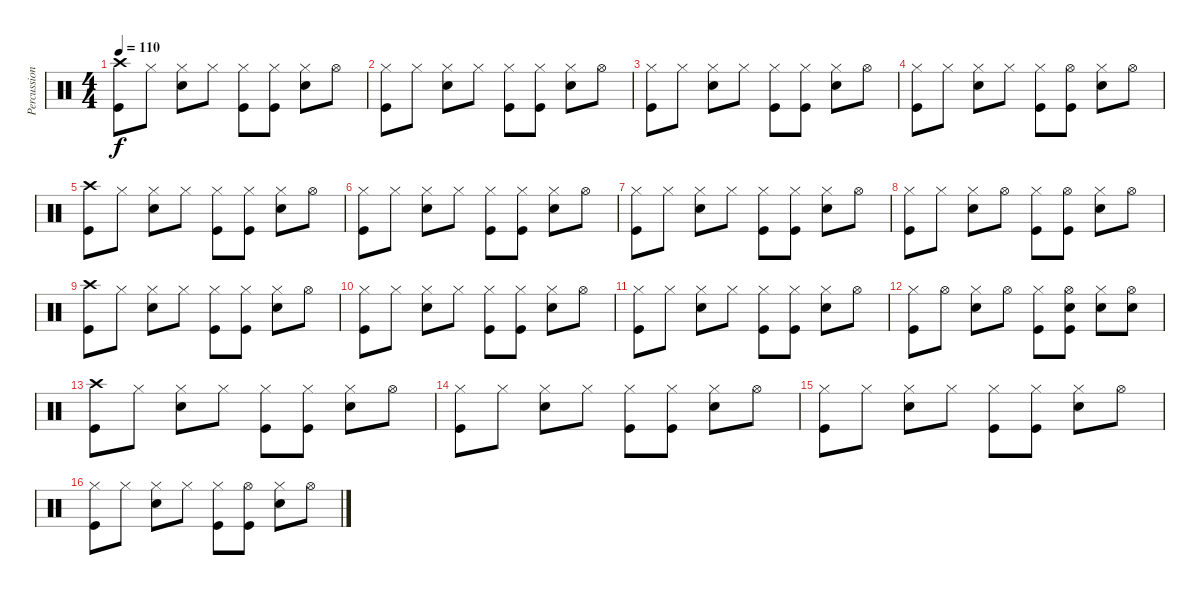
\track ("Percussion" "Percussion") {instrument percussion}
\staff {score}
\articulation defaults
\ts (4 4)
\tempo 110
\clef neutral
\ks c
("Kick (hit)" "Crash high (hit)").8{dy f} "Hi-Hat (closed)".8 ("Snare (hit) 2" "Hi-Hat (closed)").8 "Hi-Hat (closed)".8 ("Kick (hit)" "Hi-Hat (closed)").8 ("Kick (hit)" "Hi-Hat (closed)").8 ("Snare (hit) 2" "Hi-Hat (closed)").8 "Hi-Hat (open)".8 |
("Kick (hit)" "Hi-Hat (closed)").8 "Hi-Hat (closed)".8 ("Snare (hit) 2" "Hi-Hat (closed)").8 "Hi-Hat (closed)".8 ("Kick (hit)" "Hi-Hat (closed)").8 ("Kick (hit)" "Hi-Hat (closed)").8 ("Snare (hit) 2" "Hi-Hat (closed)").8 "Hi-Hat (open)".8 |
("Kick (hit)" "Hi-Hat (closed)").8 "Hi-Hat (closed)".8 ("Snare (hit) 2" "Hi-Hat (closed)").8 "Hi-Hat (closed)".8 ("Kick (hit)" "Hi-Hat (closed)").8 ("Kick (hit)" "Hi-Hat (closed)").8 ("Snare (hit) 2" "Hi-Hat (closed)").8 "Hi-Hat (open)".8 |
("Kick (hit)" "Hi-Hat (closed)").8 "Hi-Hat (closed)".8 ("Snare (hit) 2" "Hi-Hat (closed)").8 "Hi-Hat (closed)".8 ("Kick (hit)" "Hi-Hat (closed)").8 ("Kick (hit)" "Hi-Hat (open)").8 ("Snare (hit) 2" "Hi-Hat (closed)").8 "Hi-Hat (open)".8 |
("Kick (hit)" "Crash high (hit)").8 "Hi-Hat (closed)".8 ("Snare (hit) 2" "Hi-Hat (closed)").8 "Hi-Hat (closed)".8 ("Kick (hit)" "Hi-Hat (closed)").8 ("Kick (hit)" "Hi-Hat (closed)").8 ("Snare (hit) 2" "Hi-Hat (closed)").8 "Hi-Hat (open)".8 |
("Kick (hit)" "Hi-Hat (closed)").8 "Hi-Hat (closed)".8 ("Snare (hit) 2" "Hi-Hat (closed)").8 "Hi-Hat (closed)".8 ("Kick (hit)" "Hi-Hat (closed)").8 ("Kick (hit)" "Hi-Hat (closed)").8 ("Snare (hit) 2" "Hi-Hat (closed)").8 "Hi-Hat (open)".8 |
("Kick (hit)" "Hi-Hat (closed)").8 "Hi-Hat (closed)".8 ("Snare (hit) 2" "Hi-Hat (closed)").8 "Hi-Hat (closed)".8 ("Kick (hit)" "Hi-Hat (closed)").8 ("Kick (hit)" "Hi-Hat (closed)").8 ("Snare (hit) 2" "Hi-Hat (closed)").8 "Hi-Hat (open)".8 |
("Kick (hit)" "Hi-Hat (closed)").8 "Hi-Hat (closed)".8 ("Snare (hit) 2" "Hi-Hat (closed)").8 "Hi-Hat (open)".8 ("Kick (hit)" "Hi-Hat (closed)").8 ("Kick (hit)" "Hi-Hat (open)").8 ("Snare (hit) 2" "Hi-Hat (closed)").8 "Hi-Hat (open)".8 |
("Kick (hit)" "Crash high (hit)").8 "Hi-Hat (closed)".8 ("Snare (hit) 2" "Hi-Hat (closed)").8 "Hi-Hat (closed)".8 ("Kick (hit)" "Hi-Hat (closed)").8 ("Kick (hit)" "Hi-Hat (closed)").8 ("Snare (hit) 2" "Hi-Hat (closed)").8 "Hi-Hat (open)".8 |
("Kick (hit)" "Hi-Hat (closed)").8 "Hi-Hat (closed)".8 ("Snare (hit) 2" "Hi-Hat (closed)").8 "Hi-Hat (closed)".8 ("Kick (hit)" "Hi-Hat (closed)").8 ("Kick (hit)" "Hi-Hat (closed)").8 ("Snare (hit) 2" "Hi-Hat (closed)").8 "Hi-Hat (open)".8 |
("Kick (hit)" "Hi-Hat (closed)").8 "Hi-Hat (closed)".8 ("Snare (hit) 2" "Hi-Hat (closed)").8 "Hi-Hat (closed)".8 ("Kick (hit)" "Hi-Hat (closed)").8 ("Kick (hit)" "Hi-Hat (closed)").8 ("Snare (hit) 2" "Hi-Hat (closed)").8 "Hi-Hat (open)".8 |
("Kick (hit)" "Hi-Hat (closed)").8 "Hi-Hat (open)".8 ("Snare (hit) 2" "Hi-Hat (closed)").8 "Hi-Hat (open)".8 ("Kick (hit)" "Hi-Hat (closed)").8 ("Kick (hit)" "Hi-Hat (open)" "Snare (hit) 2").8 ("Snare (hit) 2" "Hi-Hat (closed)").8 ("Snare (hit) 2" "Hi-Hat (open)").8 |
("Kick (hit)" "Crash high (hit)").8 "Hi-Hat (closed)".8 ("Snare (hit) 2" "Hi-Hat (closed)").8 "Hi-Hat (closed)".8 ("Kick (hit)" "Hi-Hat (closed)").8 ("Kick (hit)" "Hi-Hat (closed)").8 ("Snare (hit) 2" "Hi-Hat (closed)").8 "Hi-Hat (open)".8 |
("Kick (hit)" "Hi-Hat (closed)").8 "Hi-Hat (closed)".8 ("Snare (hit) 2" "Hi-Hat (closed)").8 "Hi-Hat (closed)".8 ("Kick (hit)" "Hi-Hat (closed)").8 ("Kick (hit)" "Hi-Hat (closed)").8 ("Snare (hit) 2" "Hi-Hat (closed)").8 "Hi-Hat (open)".8 |
("Kick (hit)" "Hi-Hat (closed)").8 "Hi-Hat (closed)".8 ("Snare (hit) 2" "Hi-Hat (closed)").8 "Hi-Hat (closed)".8 ("Kick (hit)" "Hi-Hat (closed)").8 ("Kick (hit)" "Hi-Hat (closed)").8 ("Snare (hit) 2" "Hi-Hat (closed)").8 "Hi-Hat (open)".8 |
("Kick (hit)" "Hi-Hat (closed)").8 "Hi-Hat (closed)".8 ("Snare (hit) 2" "Hi-Hat (closed)").8 "Hi-Hat (closed)".8 ("Kick (hit)" "Hi-Hat (closed)").8 ("Kick (hit)" "Hi-Hat (open)").8 ("Snare (hit) 2" "Hi-Hat (closed)").8 "Hi-Hat (open)".8
